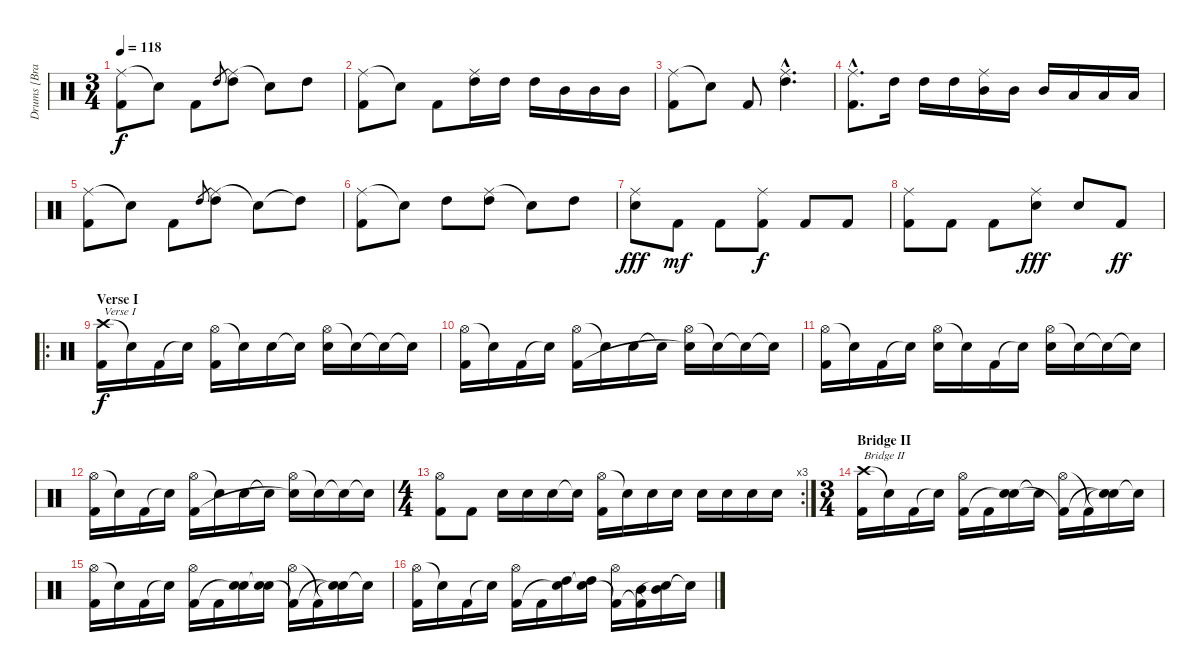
\track ("Drums [Brann Dailor]" "Drums [Bra") {instrument percussion}
\staff {score}
\articulation defaults
\ts (3 4)
\tempo 118
\clef neutral
\ks c
("Ride (middle)" "Kick (hit) 2").8{dy f} "Snare (hit)"{t}.8 "Kick (hit) 2".8 "High Tom (hit)".8{gr} ("Ride (middle)" "High Tom (hit)").8 "Snare (hit)"{t}.8 "High Tom (hit)".8 |
("Ride (middle)" "Kick (hit) 2").8 "Snare (hit)"{t}.8 "Kick (hit) 2".8 ("Ride (middle)" "High Tom (hit)").16 "High Tom (hit)".16 "High Tom (hit)".16 "Mid Tom (hit)".16 "Mid Tom (hit)".16 "Mid Tom (hit)".16 |
("Ride (middle)" "Kick (hit) 2").8 "Snare (hit)"{t}.8 "Kick (hit) 2".8 ("Ride (middle)"{hac} "High Tom (hit)"{hac}).4{d} |
("Ride (middle)"{hac} "Kick (hit) 2"{hac}).8{d} "High Tom (hit)".16 "High Tom (hit)".16 "High Tom (hit)".16 ("Ride (middle)" "Mid Tom (hit)").16 "Mid Tom (hit)".16 "Mid Tom (hit)".16 "Low Tom (hit)".16 "Low Tom (hit)".16 "Low Tom (hit)".16 |
("Ride (middle)" "Kick (hit) 2").8 "Snare (hit)"{t}.8 "Kick (hit) 2".8 "High Tom (hit)".8{gr} ("Ride (middle)" "High Tom (hit)").8 "Snare (hit)"{t}.8 "High Tom (hit)"{t}.8 |
("Ride (middle)" "Kick (hit) 2").8 "Snare (hit)"{t}.8 "High Tom (hit)".8 ("Ride (middle)" "High Tom (hit)").8 "Snare (hit)"{t}.8 "High Tom (hit)".8 |
("Ride (middle)" "Electric Snare (hit)").8{dy fff} "Kick (hit) 2".8{dy mf} "Kick (hit) 2".8 ("Ride (middle)" "Kick (hit) 2").8{dy f} "Kick (hit) 2".8 "Kick (hit) 2".8 |
("Ride (middle)" "Kick (hit) 2").8 "Kick (hit) 2".8 "Kick (hit) 2".8 ("Ride (middle)" "Electric Snare (hit)").8{dy fff} "Electric Snare (hit)".8 "Kick (hit) 2".8{dy ff} |
\ro
\section ("" "Verse I")
("Crash high (hit)" "Kick (hit) 2").16{txt "Verse I" dy f} "Snare (hit)"{t}.16 "Kick (hit) 2".16 "Snare (hit)"{t}.16 ("Hi-Hat (open)" "Kick (hit) 2").16 "Snare (hit)"{t}.16 "Electric Snare (hit)".16 "Snare (hit)"{t}.16 ("Hi-Hat (open)" "Electric Snare (hit)").16 "Snare (hit)"{t}.16 "Snare (hit)"{t}.16 "Snare (hit)"{t}.16 |
("Hi-Hat (open)" "Kick (hit) 2").16 "Snare (hit)"{t}.16 "Kick (hit) 2".16 "Snare (hit)"{t}.16 ("Hi-Hat (open)" "Kick (hit) 2").16 "Snare (hit)"{t}.16 "Electric Snare (hit)".16 "Snare (hit)"{t}.16 ("Hi-Hat (open)" "Electric Snare (hit)"{t}).16 "Snare (hit)"{t}.16 "Snare (hit)"{t}.16 "Snare (hit)"{t}.16 |
("Hi-Hat (open)" "Kick (hit) 2").16 "Snare (hit)"{t}.16 "Kick (hit) 2".16 "Snare (hit)"{t}.16 ("Hi-Hat (open)" "Electric Snare (hit)").16 "Snare (hit)"{t}.16 "Kick (hit) 2".16 "Snare (hit)"{t}.16 ("Hi-Hat (open)" "Electric Snare (hit)").16 "Snare (hit)"{t}.16 "Snare (hit)"{t}.16 "Snare (hit)"{t}.16 |
("Hi-Hat (open)" "Kick (hit) 2").16 "Snare (hit)"{t}.16 "Kick (hit) 2".16 "Snare (hit)"{t}.16 ("Hi-Hat (open)" "Kick (hit) 2").16 "Snare (hit)"{t}.16 "Electric Snare (hit)".16 "Snare (hit)"{t}.16 ("Hi-Hat (open)" "Electric Snare (hit)"{t}).16 "Snare (hit)"{t}.16 "Snare (hit)"{t}.16 "Snare (hit)"{t}.16 |
\rc 3
\ts (4 4)
("Hi-Hat (open)" "Kick (hit) 2").8 "Kick (hit) 2".8 "Electric Snare (hit)".16 "Electric Snare (hit)".16 "Electric Snare (hit)".16 "Snare (hit)"{t}.16 ("Hi-Hat (open)" "Kick (hit) 2").16 "Snare (hit)"{t}.16 "Electric Snare (hit)".16 "Electric Snare (hit)".16 "Electric Snare (hit)".16 "Electric Snare (hit)".16 "Electric Snare (hit)".16 "Electric Snare (hit)".16 |
\ts (3 4)
\section ("" "Bridge II")
("Crash high (hit)" "Kick (hit) 2").16{txt "Bridge II"} "Snare (hit)"{t}.16 "Kick (hit) 2".16 "Snare (hit)"{t}.16 ("Hi-Hat (open)" "Kick (hit) 2").16 "Kick (hit) 2".16 ("Electric Snare (hit)" "Snare (hit)"{t}).16 "Snare (hit)"{t}.16 ("Hi-Hat (open)" "Kick (hit) 2"{t}).16 "Kick (hit) 2"{t}.16 ("Electric Snare (hit)"{t} "Snare (hit)"{t}).16 "Snare (hit)"{t}.16 |
("Hi-Hat (open)" "Kick (hit) 2").16 "Snare (hit)"{t}.16 "Kick (hit) 2".16 "Snare (hit)"{t}.16 ("Hi-Hat (open)" "Kick (hit) 2").16 "Kick (hit) 2".16 ("Electric Snare (hit)" "Snare (hit)"{t}).16 ("Electric Snare (hit)" "Snare (hit)"{t}).16 ("Hi-Hat (open)" "Kick (hit) 2"{t}).16 "Kick (hit) 2"{t}.16 ("Electric Snare (hit)"{t} "Snare (hit)"{t}).16 "Snare (hit)"{t}.16 |
("Hi-Hat (open)" "Kick (hit) 2").16 "Snare (hit)"{t}.16 "Kick (hit) 2".16 "Snare (hit)"{t}.16 ("Hi-Hat (open)" "Kick (hit) 2").16 "Kick (hit) 2".16 ("High Tom (hit)" "Snare (hit)"{t}).16 ("High Tom (hit)" "Snare (hit)"{t}).16 ("Hi-Hat (open)" "Kick (hit) 2"{t}).16 ("Mid Tom (hit)" "Kick (hit) 2"{t}).16 ("Mid Tom (hit)" "Snare (hit)"{t}).16 "Snare (hit)"{t}.16
